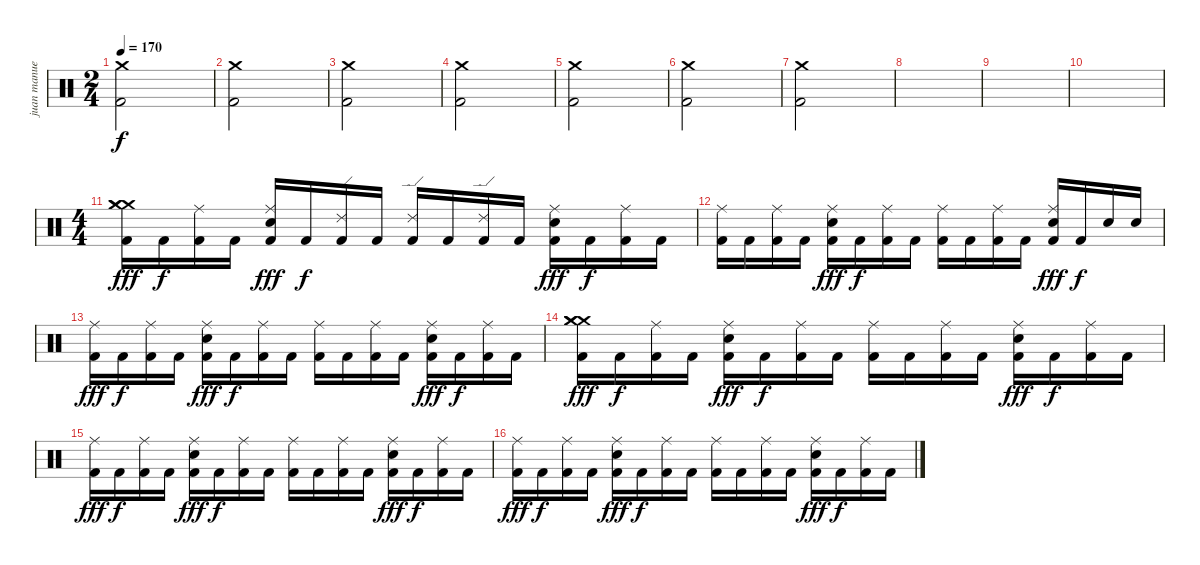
\track ("juan manuel" "juan manue") {instrument percussion}
\staff {score}
\articulation defaults
\ts (2 4)
\tempo 170
\clef neutral
\ks c
("Crash medium (hit)" "Kick (hit) 2").2{dy f} |
("Crash medium (hit)" "Kick (hit) 2").2 |
("Crash medium (hit)" "Kick (hit) 2").2 |
("Crash medium (hit)" "Kick (hit) 2").2 |
("Crash medium (hit)" "Kick (hit) 2").2 |
("Crash medium (hit)" "Kick (hit) 2").2 |
("Crash medium (hit)" "Kick (hit) 2").2 |
|
|
|
\ts (4 4)
("Crash medium (hit)" "Crash medium (hit)" "Crash medium (hit)" "Kick (hit) 2").16{dy fff} "Kick (hit) 2".16{dy f} ("Ride (middle)" "Kick (hit) 2").16 "Kick (hit) 2".16 ("Ride (middle)" "Snare (hit) 2" "Kick (hit) 2").16{dy fff} "Kick (hit) 2".16{dy f} ("Ride (edge) 2" "Kick (hit) 2").16 "Kick (hit) 2".16 ("Ride (edge) 2" "Kick (hit) 2").16 "Kick (hit) 2".16 ("Ride (edge) 2" "Kick (hit) 2").16 "Kick (hit) 2".16 ("Ride (middle)" "Snare (hit) 2" "Kick (hit) 2").16{dy fff} "Kick (hit) 2".16{dy f} ("Ride (middle)" "Kick (hit) 2").16 "Kick (hit) 2".16 |
("Ride (middle)" "Kick (hit) 2").16 "Kick (hit) 2".16 ("Ride (middle)" "Kick (hit) 2").16 "Kick (hit) 2".16 ("Ride (middle)" "Snare (hit) 2" "Kick (hit) 2").16{dy fff} "Kick (hit) 2".16{dy f} ("Ride (middle)" "Kick (hit) 2").16 "Kick (hit) 2".16 ("Ride (middle)" "Kick (hit) 2").16 "Kick (hit) 2".16 ("Ride (middle)" "Kick (hit) 2").16 "Kick (hit) 2".16 ("Ride (middle)" "Snare (hit) 2" "Kick (hit) 2").16{dy fff} "Kick (hit) 2".16{dy f} "Electric Snare (hit)".16 "Electric Snare (hit)".16 |
("Ride (middle)" "Kick (hit) 2").16{dy fff} "Kick (hit) 2".16{dy f} ("Ride (middle)" "Kick (hit) 2").16 "Kick (hit) 2".16 ("Ride (middle)" "Snare (hit) 2" "Kick (hit) 2").16{dy fff} "Kick (hit) 2".16{dy f} ("Ride (middle)" "Kick (hit) 2").16 "Kick (hit) 2".16 ("Ride (middle)" "Kick (hit) 2").16 "Kick (hit) 2".16 ("Ride (middle)" "Kick (hit) 2").16 "Kick (hit) 2".16 ("Ride (middle)" "Snare (hit) 2" "Kick (hit) 2").16{dy fff} "Kick (hit) 2".16{dy f} ("Ride (middle)" "Kick (hit) 2").16 "Kick (hit) 2".16 |
("Crash medium (hit)" "Crash medium (hit)" "Crash medium (hit)" "Kick (hit) 2").16{dy fff} "Kick (hit) 2".16{dy f} ("Ride (middle)" "Kick (hit) 2").16 "Kick (hit) 2".16 ("Ride (middle)" "Snare (hit) 2" "Kick (hit) 2").16{dy fff} "Kick (hit) 2".16{dy f} ("Ride (middle)" "Kick (hit) 2").16 "Kick (hit) 2".16 ("Ride (middle)" "Kick (hit) 2").16 "Kick (hit) 2".16 ("Ride (middle)" "Kick (hit) 2").16 "Kick (hit) 2".16 ("Ride (middle)" "Snare (hit) 2" "Kick (hit) 2").16{dy fff} "Kick (hit) 2".16{dy f} ("Ride (middle)" "Kick (hit) 2").16 "Kick (hit) 2".16 |
("Ride (middle)" "Kick (hit) 2").16{dy fff} "Kick (hit) 2".16{dy f} ("Ride (middle)" "Kick (hit) 2").16 "Kick (hit) 2".16 ("Ride (middle)" "Snare (hit) 2" "Kick (hit) 2").16{dy fff} "Kick (hit) 2".16{dy f} ("Ride (middle)" "Kick (hit) 2").16 "Kick (hit) 2".16 ("Ride (middle)" "Kick (hit) 2").16 "Kick (hit) 2".16 ("Ride (middle)" "Kick (hit) 2").16 "Kick (hit) 2".16 ("Ride (middle)" "Snare (hit) 2" "Kick (hit) 2").16{dy fff} "Kick (hit) 2".16{dy f} ("Ride (middle)" "Kick (hit) 2").16 "Kick (hit) 2".16 |
("Ride (middle)" "Kick (hit) 2").16{dy fff} "Kick (hit) 2".16{dy f} ("Ride (middle)" "Kick (hit) 2").16 "Kick (hit) 2".16 ("Ride (middle)" "Snare (hit) 2" "Kick (hit) 2").16{dy fff} "Kick (hit) 2".16{dy f} ("Ride (middle)" "Kick (hit) 2").16 "Kick (hit) 2".16 ("Ride (middle)" "Kick (hit) 2").16 "Kick (hit) 2".16 ("Ride (middle)" "Kick (hit) 2").16 "Kick (hit) 2".16 ("Ride (middle)" "Snare (hit) 2" "Kick (hit) 2").16{dy fff} "Kick (hit) 2".16{dy f} ("Ride (middle)" "Kick (hit) 2").16 "Kick (hit) 2".16
